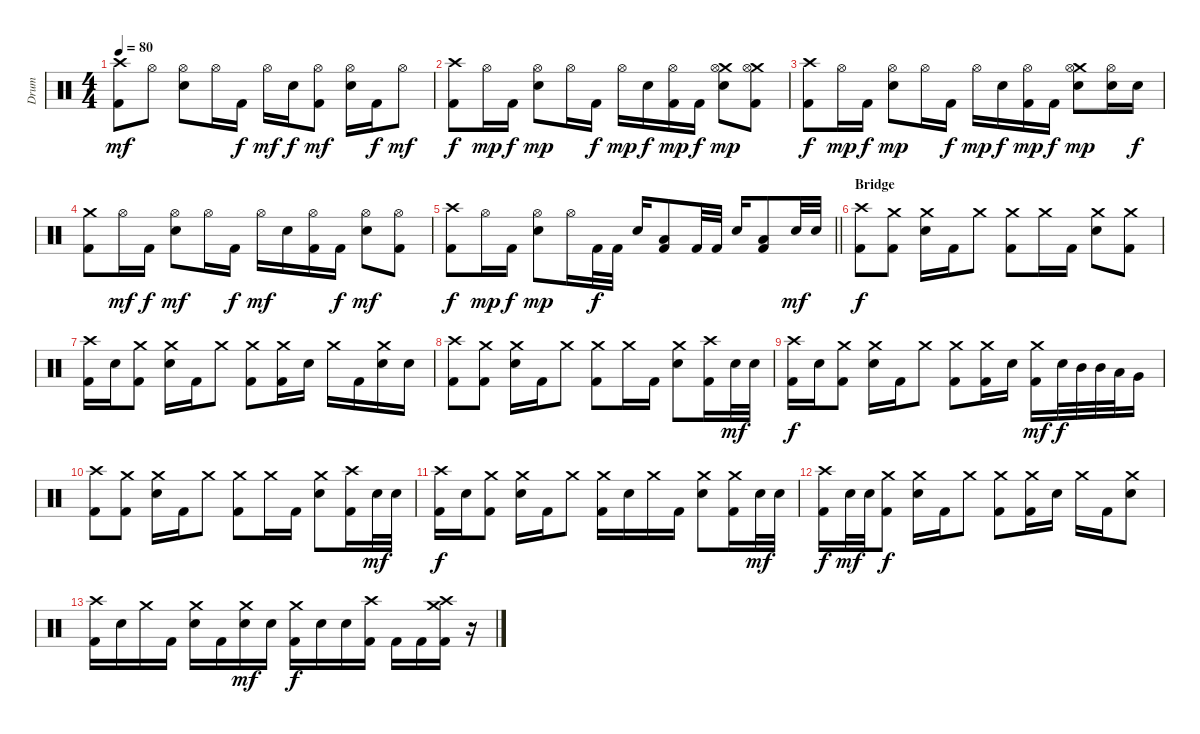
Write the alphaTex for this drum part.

\track ("Drum" "Drum") {instrument percussion}
\staff {score}
\articulation defaults
\ts (4 4)
\tempo 80
\clef neutral
\ks c
("Crash high (hit)" "Kick (hit) 2").8{dy mf} "Hi-Hat (open)".8 ("Hi-Hat (open)" "Snare (hit) 2").8 "Hi-Hat (open)".16 "Kick (hit) 2".16{dy f} "Hi-Hat (open)".16{dy mf} "Snare (hit) 2".16{dy f} ("Hi-Hat (open)" "Kick (hit) 2").8{dy mf} ("Hi-Hat (open)" "Snare (hit) 2").16 "Kick (hit) 2".16{dy f} "Hi-Hat (open)".8{dy mf} |
("Crash high (hit)" "Kick (hit) 2").8{dy f} "Hi-Hat (open)".16{dy mp} "Kick (hit) 2".16{dy f} ("Hi-Hat (open)" "Snare (hit) 2").8{dy mp} "Hi-Hat (open)".16 "Kick (hit) 2".16{dy f} "Hi-Hat (open)".16{dy mp} "Snare (hit) 2".16{dy f} ("Hi-Hat (open)" "Kick (hit) 2").16{dy mp} "Kick (hit) 2".16{dy f} ("Crash medium (hit)" "Hi-Hat (open)" "Snare (hit) 2").8{dy mp} ("Crash medium (hit)" "Hi-Hat (open)" "Kick (hit) 2").8 |
("Crash high (hit)" "Kick (hit) 2").8{dy f} "Hi-Hat (open)".16{dy mp} "Kick (hit) 2".16{dy f} ("Hi-Hat (open)" "Snare (hit) 2").8{dy mp} "Hi-Hat (open)".16 "Kick (hit) 2".16{dy f} "Hi-Hat (open)".16{dy mp} "Snare (hit) 2".16{dy f} ("Hi-Hat (open)" "Kick (hit) 2").16{dy mp} "Kick (hit) 2".16{dy f} ("Crash medium (hit)" "Hi-Hat (open)" "Snare (hit) 2").8{dy mp} ("Hi-Hat (open)" "Snare (hit) 2").16 "Snare (hit) 2".16{dy f} |
("Crash medium (hit)" "Kick (hit) 2").8 "Hi-Hat (open)".16{dy mf} "Kick (hit) 2".16{dy f} ("Hi-Hat (open)" "Snare (hit) 2").8{dy mf} "Hi-Hat (open)".16 "Kick (hit) 2".16{dy f} "Hi-Hat (open)".16{dy mf} "Snare (hit) 2".16 ("Hi-Hat (open)" "Kick (hit) 2").16 "Kick (hit) 2".16{dy f} ("Hi-Hat (open)" "Snare (hit) 2").8{dy mf} ("Hi-Hat (open)" "Kick (hit) 2").8 |
\barLineRight lightlight
("Crash high (hit)" "Kick (hit) 2").8{dy f} "Hi-Hat (open)".16{dy mp} "Kick (hit) 2".16{dy f} ("Hi-Hat (open)" "Snare (hit) 2").8{dy mp} "Hi-Hat (open)".16 "Kick (hit) 2".32{dy f} "Kick (hit) 2".32 "Snare (hit) 2".16 ("Low Floor Tom (hit)" "Kick (hit) 2").8 "Kick (hit) 2".32 "Kick (hit) 2".32 "Snare (hit) 2".16 ("Low Floor Tom (hit)" "Kick (hit) 2").8 "Snare (hit) 2".32{dy mf} "Snare (hit) 2".32 |
\section ("" "Bridge")
("Crash high (hit)" "Kick (hit) 2").8{dy f} ("Crash medium (hit)" "Kick (hit) 2").8 ("Crash medium (hit)" "Snare (hit) 2").16 "Kick (hit) 2".16 "Crash medium (hit)".8 ("Crash medium (hit)" "Kick (hit) 2").8 "Crash medium (hit)".16 "Kick (hit) 2".16 ("Crash medium (hit)" "Snare (hit) 2").8 ("Crash medium (hit)" "Kick (hit) 2").8 |
("Crash high (hit)" "Kick (hit) 2").16 "Snare (hit) 2".16 ("Crash medium (hit)" "Kick (hit) 2").8 ("Crash medium (hit)" "Snare (hit) 2").16 "Kick (hit) 2".16 "Crash medium (hit)".8 ("Crash medium (hit)" "Kick (hit) 2").8 ("Crash medium (hit)" "Kick (hit) 2").16 "Snare (hit) 2".16 "Crash medium (hit)".16 "Kick (hit) 2".16 ("Crash medium (hit)" "Snare (hit) 2").16 "Snare (hit) 2".16 |
("Crash high (hit)" "Kick (hit) 2").8 ("Crash medium (hit)" "Kick (hit) 2").8 ("Crash medium (hit)" "Snare (hit) 2").16 "Kick (hit) 2".16 "Crash medium (hit)".8 ("Crash medium (hit)" "Kick (hit) 2").8 "Crash medium (hit)".16 "Kick (hit) 2".16 ("Crash medium (hit)" "Snare (hit) 2").8 ("Crash high (hit)" "Kick (hit) 2").16 "Snare (hit) 2".32{dy mf} "Snare (hit) 2".32 |
("Crash high (hit)" "Kick (hit) 2").16{dy f} "Snare (hit) 2".16 ("Crash medium (hit)" "Kick (hit) 2").8 ("Crash medium (hit)" "Snare (hit) 2").16 "Kick (hit) 2".16 "Crash medium (hit)".8 ("Crash medium (hit)" "Kick (hit) 2").8 ("Crash medium (hit)" "Kick (hit) 2").16 "Snare (hit) 2".16 ("Crash medium (hit)" "Kick (hit) 2").16{dy mf} "Snare (hit) 2".32{dy f} "Mid Tom (hit)".32 "Mid Tom (hit)".32 "Low Tom (hit)".32 "Very Low Tom (hit)".16 |
("Crash high (hit)" "Kick (hit) 2").8 ("Crash medium (hit)" "Kick (hit) 2").8 ("Crash medium (hit)" "Snare (hit) 2").16 "Kick (hit) 2".16 "Crash medium (hit)".8 ("Crash medium (hit)" "Kick (hit) 2").8 "Crash medium (hit)".16 "Kick (hit) 2".16 ("Crash medium (hit)" "Snare (hit) 2").8 ("Crash high (hit)" "Kick (hit) 2").16 "Snare (hit) 2".32{dy mf} "Snare (hit) 2".32 |
("Crash high (hit)" "Kick (hit) 2").16{dy f} "Snare (hit) 2".16 ("Crash medium (hit)" "Kick (hit) 2").8 ("Crash medium (hit)" "Snare (hit) 2").16 "Kick (hit) 2".16 "Crash medium (hit)".8 ("Crash medium (hit)" "Kick (hit) 2").16 "Snare (hit) 2".16 "Crash medium (hit)".16 "Kick (hit) 2".16 ("Crash medium (hit)" "Snare (hit) 2").8 ("Crash medium (hit)" "Kick (hit) 2").16 "Snare (hit) 2".32{dy mf} "Snare (hit) 2".32 |
("Crash high (hit)" "Kick (hit) 2").16{dy f} "Snare (hit) 2".32{dy mf} "Snare (hit) 2".32 ("Crash medium (hit)" "Kick (hit) 2").8{dy f} ("Crash medium (hit)" "Snare (hit) 2").16 "Kick (hit) 2".16 "Crash medium (hit)".8 ("Crash medium (hit)" "Kick (hit) 2").8 ("Crash medium (hit)" "Kick (hit) 2").16 "Snare (hit) 2".16 "Crash medium (hit)".16 "Kick (hit) 2".16 ("Crash medium (hit)" "Snare (hit) 2").8 |
("Crash high (hit)" "Kick (hit) 2").16 "Snare (hit) 2".16 "Crash medium (hit)".16 "Kick (hit) 2".16 ("Crash medium (hit)" "Snare (hit) 2").16 "Kick (hit) 2".16 ("Crash medium (hit)" "Snare (hit) 2").16{dy mf} "Snare (hit) 2".16 ("Crash medium (hit)" "Kick (hit) 2").16{dy f} "Snare (hit) 2".16 "Snare (hit) 2".16 ("Crash high (hit)" "Kick (hit) 2").16 "Kick (hit) 2".16 "Kick (hit) 2".16 ("Crash medium (hit)" "Crash high (hit)" "Kick (hit) 2").16 r.16
